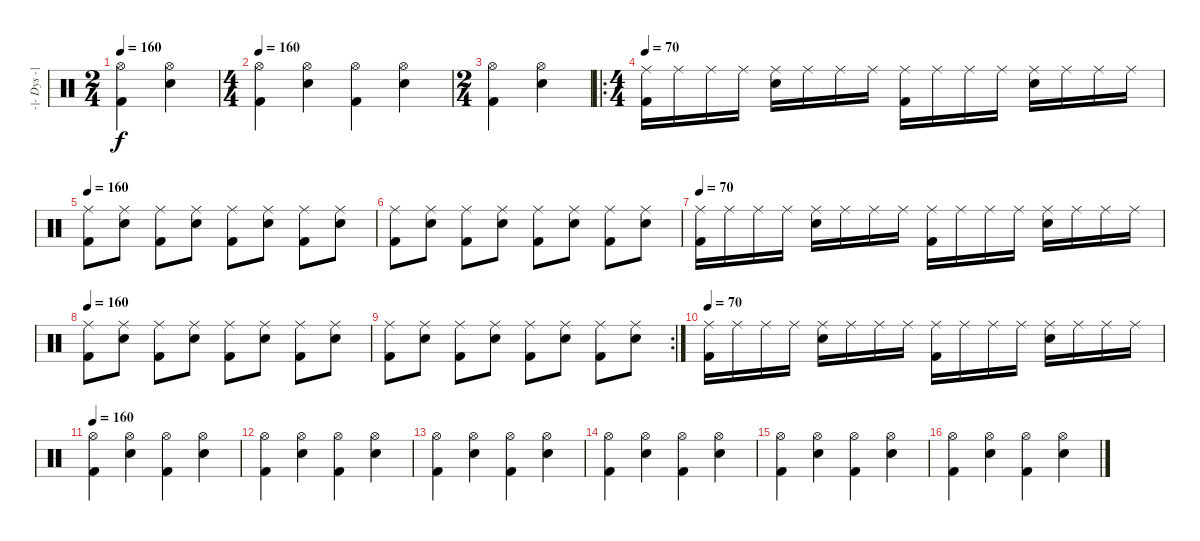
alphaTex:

\track ("-|- Dys -|-" "-|- Dys -|") {instrument percussion}
\staff {score}
\articulation defaults
\ts (2 4)
\tempo 160
\clef neutral
\ks c
("Hi-Hat (open)" "Kick (hit) 2").4{dy f} ("Hi-Hat (open)" "Snare (hit) 2").4 |
\ts (4 4)
\tempo 160
("Hi-Hat (open)" "Kick (hit) 2").4 ("Hi-Hat (open)" "Snare (hit) 2").4 ("Hi-Hat (open)" "Kick (hit) 2").4 ("Hi-Hat (open)" "Snare (hit) 2").4 |
\ts (2 4)
("Hi-Hat (open)" "Kick (hit) 2").4 ("Hi-Hat (open)" "Snare (hit) 2").4 |
\ro
\ts (4 4)
\tempo 70
("Ride (middle)" "Kick (hit) 2").16 "Ride (middle)".16 "Ride (middle)".16 "Ride (middle)".16 ("Ride (middle)" "Snare (hit) 2").16 "Ride (middle)".16 "Ride (middle)".16 "Ride (middle)".16 ("Ride (middle)" "Kick (hit) 2").16 "Ride (middle)".16 "Ride (middle)".16 "Ride (middle)".16 ("Ride (middle)" "Snare (hit) 2").16 "Ride (middle)".16 "Ride (middle)".16 "Ride (middle)".16 |
\tempo 160
("Ride (middle)" "Kick (hit) 2").8 ("Ride (middle)" "Snare (hit) 2").8 ("Ride (middle)" "Kick (hit) 2").8 ("Ride (middle)" "Snare (hit) 2").8 ("Ride (middle)" "Kick (hit) 2").8 ("Ride (middle)" "Snare (hit) 2").8 ("Ride (middle)" "Kick (hit) 2").8 ("Ride (middle)" "Snare (hit) 2").8 |
("Ride (middle)" "Kick (hit) 2").8 ("Ride (middle)" "Snare (hit) 2").8 ("Ride (middle)" "Kick (hit) 2").8 ("Ride (middle)" "Snare (hit) 2").8 ("Ride (middle)" "Kick (hit) 2").8 ("Ride (middle)" "Snare (hit) 2").8 ("Ride (middle)" "Kick (hit) 2").8 ("Ride (middle)" "Snare (hit) 2").8 |
\tempo 70
("Ride (middle)" "Kick (hit) 2").16 "Ride (middle)".16 "Ride (middle)".16 "Ride (middle)".16 ("Ride (middle)" "Snare (hit) 2").16 "Ride (middle)".16 "Ride (middle)".16 "Ride (middle)".16 ("Ride (middle)" "Kick (hit) 2").16 "Ride (middle)".16 "Ride (middle)".16 "Ride (middle)".16 ("Ride (middle)" "Snare (hit) 2").16 "Ride (middle)".16 "Ride (middle)".16 "Ride (middle)".16 |
\tempo 160
("Ride (middle)" "Kick (hit) 2").8 ("Ride (middle)" "Snare (hit) 2").8 ("Ride (middle)" "Kick (hit) 2").8 ("Ride (middle)" "Snare (hit) 2").8 ("Ride (middle)" "Kick (hit) 2").8 ("Ride (middle)" "Snare (hit) 2").8 ("Ride (middle)" "Kick (hit) 2").8 ("Ride (middle)" "Snare (hit) 2").8 |
\rc 2
("Ride (middle)" "Kick (hit) 2").8 ("Ride (middle)" "Snare (hit) 2").8 ("Ride (middle)" "Kick (hit) 2").8 ("Ride (middle)" "Snare (hit) 2").8 ("Ride (middle)" "Kick (hit) 2").8 ("Ride (middle)" "Snare (hit) 2").8 ("Ride (middle)" "Kick (hit) 2").8 ("Ride (middle)" "Snare (hit) 2").8 |
\tempo 70
("Ride (middle)" "Kick (hit) 2").16 "Ride (middle)".16 "Ride (middle)".16 "Ride (middle)".16 ("Ride (middle)" "Snare (hit) 2").16 "Ride (middle)".16 "Ride (middle)".16 "Ride (middle)".16 ("Ride (middle)" "Kick (hit) 2").16 "Ride (middle)".16 "Ride (middle)".16 "Ride (middle)".16 ("Ride (middle)" "Snare (hit) 2").16 "Ride (middle)".16 "Ride (middle)".16 "Ride (middle)".16 |
\tempo 160
("Hi-Hat (open)" "Kick (hit) 2").4 ("Hi-Hat (open)" "Snare (hit) 2").4 ("Hi-Hat (open)" "Kick (hit) 2").4 ("Hi-Hat (open)" "Snare (hit) 2").4 |
("Hi-Hat (open)" "Kick (hit) 2").4 ("Hi-Hat (open)" "Snare (hit) 2").4 ("Hi-Hat (open)" "Kick (hit) 2").4 ("Hi-Hat (open)" "Snare (hit) 2").4 |
("Hi-Hat (open)" "Kick (hit) 2").4 ("Hi-Hat (open)" "Snare (hit) 2").4 ("Hi-Hat (open)" "Kick (hit) 2").4 ("Hi-Hat (open)" "Snare (hit) 2").4 |
("Hi-Hat (open)" "Kick (hit) 2").4 ("Hi-Hat (open)" "Snare (hit) 2").4 ("Hi-Hat (open)" "Kick (hit) 2").4 ("Hi-Hat (open)" "Snare (hit) 2").4 |
("Hi-Hat (open)" "Kick (hit) 2").4 ("Hi-Hat (open)" "Snare (hit) 2").4 ("Hi-Hat (open)" "Kick (hit) 2").4 ("Hi-Hat (open)" "Snare (hit) 2").4 |
("Hi-Hat (open)" "Kick (hit) 2").4 ("Hi-Hat (open)" "Snare (hit) 2").4 ("Hi-Hat (open)" "Kick (hit) 2").4 ("Hi-Hat (open)" "Snare (hit) 2").4
